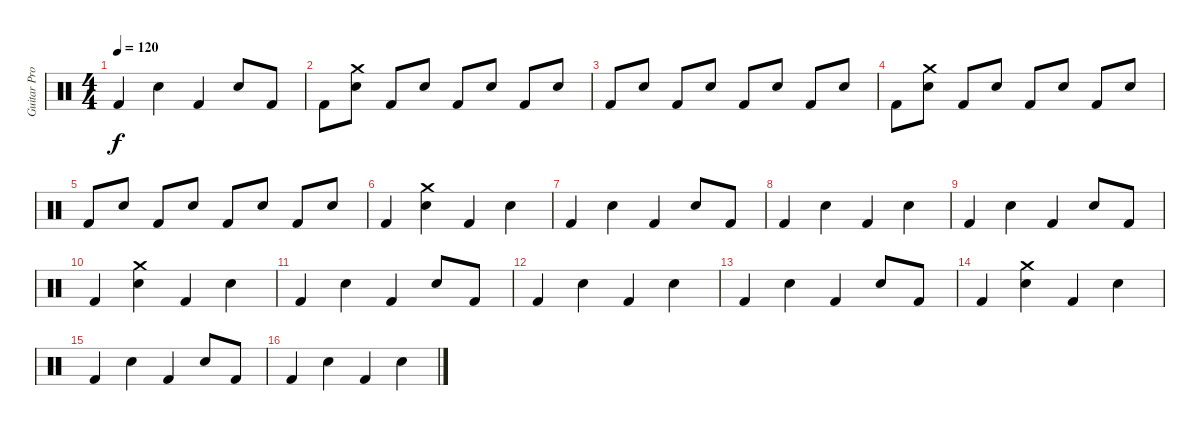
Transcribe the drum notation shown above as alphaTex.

\track ("Guitar Pro" "Guitar Pro") {instrument percussion}
\staff {score}
\articulation defaults
\ts (4 4)
\tempo 120
\clef neutral
\ks c "Kick (hit) 2".4{dy f} "Snare (hit) 2".4 "Kick (hit) 2".4 "Snare (hit) 2".8 "Kick (hit) 2".8
|
"Kick (hit) 2".8 ("Snare (hit) 2" "Crash medium (hit)").8 "Kick (hit) 2".8 "Snare (hit) 2".8 "Kick (hit) 2".8 "Snare (hit) 2".8 "Kick (hit) 2".8 "Snare (hit) 2".8 |
"Kick (hit) 2".8 "Snare (hit) 2".8 "Kick (hit) 2".8 "Snare (hit) 2".8 "Kick (hit) 2".8 "Snare (hit) 2".8 "Kick (hit) 2".8 "Snare (hit) 2".8 |
"Kick (hit) 2".8 ("Snare (hit) 2" "Crash medium (hit)").8 "Kick (hit) 2".8 "Snare (hit) 2".8 "Kick (hit) 2".8 "Snare (hit) 2".8 "Kick (hit) 2".8 "Snare (hit) 2".8 |
"Kick (hit) 2".8 "Snare (hit) 2".8 "Kick (hit) 2".8 "Snare (hit) 2".8 "Kick (hit) 2".8 "Snare (hit) 2".8 "Kick (hit) 2".8 "Snare (hit) 2".8 |
"Kick (hit) 2".4 ("Snare (hit) 2" "Crash medium (hit)").4 "Kick (hit) 2".4 "Snare (hit) 2".4 |
"Kick (hit) 2".4 "Snare (hit) 2".4 "Kick (hit) 2".4 "Snare (hit) 2".8 "Kick (hit) 2".8 |
"Kick (hit) 2".4 "Snare (hit) 2".4 "Kick (hit) 2".4 "Snare (hit) 2".4 |
"Kick (hit) 2".4 "Snare (hit) 2".4 "Kick (hit) 2".4 "Snare (hit) 2".8 "Kick (hit) 2".8 |
"Kick (hit) 2".4 ("Snare (hit) 2" "Crash medium (hit)").4 "Kick (hit) 2".4 "Snare (hit) 2".4 |
"Kick (hit) 2".4 "Snare (hit) 2".4 "Kick (hit) 2".4 "Snare (hit) 2".8 "Kick (hit) 2".8 |
"Kick (hit) 2".4 "Snare (hit) 2".4 "Kick (hit) 2".4 "Snare (hit) 2".4 |
"Kick (hit) 2".4 "Snare (hit) 2".4 "Kick (hit) 2".4 "Snare (hit) 2".8 "Kick (hit) 2".8 |
"Kick (hit) 2".4 ("Snare (hit) 2" "Crash medium (hit)").4 "Kick (hit) 2".4 "Snare (hit) 2".4 |
"Kick (hit) 2".4 "Snare (hit) 2".4 "Kick (hit) 2".4 "Snare (hit) 2".8 "Kick (hit) 2".8 |
"Kick (hit) 2".4 "Snare (hit) 2".4 "Kick (hit) 2".4 "Snare (hit) 2".4
